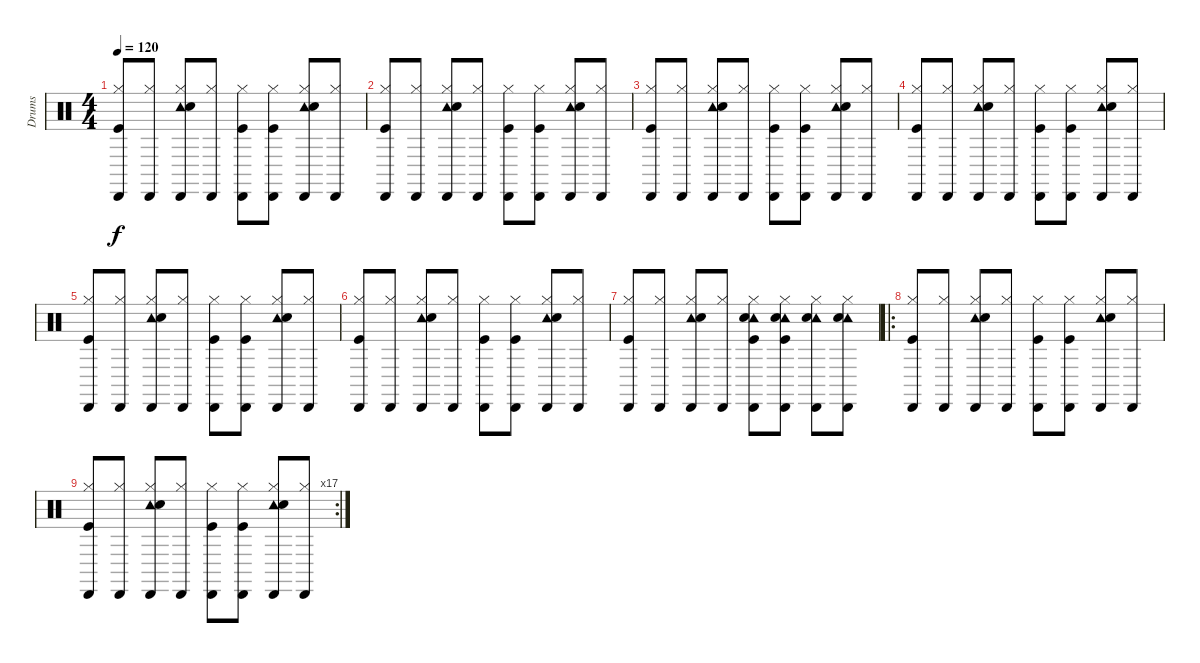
\track ("Drums" "Drums") {instrument percussion}
\staff {score}
\articulation defaults
\ts (4 4)
\tempo 120
\clef neutral
\ks c
("Hi-Hat (closed)" "Cabasa (hit)" "Kick (hit)").8{dy f} ("Hi-Hat (closed)" "Cabasa (hit)").8 ("Hi-Hat (closed)" "Tambourine (hit)" "Cabasa (hit)" "Snare (hit) 2").8 ("Hi-Hat (closed)" "Cabasa (hit)").8 ("Hi-Hat (closed)" "Cabasa (hit)" "Kick (hit)").8 ("Hi-Hat (closed)" "Cabasa (hit)" "Kick (hit)").8 ("Hi-Hat (closed)" "Tambourine (hit)" "Cabasa (hit)" "Snare (hit) 2").8 ("Hi-Hat (closed)" "Cabasa (hit)").8 |
("Hi-Hat (closed)" "Cabasa (hit)" "Kick (hit)").8 ("Hi-Hat (closed)" "Cabasa (hit)").8 ("Hi-Hat (closed)" "Tambourine (hit)" "Cabasa (hit)" "Snare (hit) 2").8 ("Hi-Hat (closed)" "Cabasa (hit)").8 ("Hi-Hat (closed)" "Cabasa (hit)" "Kick (hit)").8 ("Hi-Hat (closed)" "Cabasa (hit)" "Kick (hit)").8 ("Hi-Hat (closed)" "Tambourine (hit)" "Cabasa (hit)" "Snare (hit) 2").8 ("Hi-Hat (closed)" "Cabasa (hit)").8 |
("Hi-Hat (closed)" "Cabasa (hit)" "Kick (hit)").8 ("Hi-Hat (closed)" "Cabasa (hit)").8 ("Hi-Hat (closed)" "Tambourine (hit)" "Cabasa (hit)" "Snare (hit) 2").8 ("Hi-Hat (closed)" "Cabasa (hit)").8 ("Hi-Hat (closed)" "Cabasa (hit)" "Kick (hit)").8 ("Hi-Hat (closed)" "Cabasa (hit)" "Kick (hit)").8 ("Hi-Hat (closed)" "Tambourine (hit)" "Cabasa (hit)" "Snare (hit) 2").8 ("Hi-Hat (closed)" "Cabasa (hit)").8 |
("Hi-Hat (closed)" "Cabasa (hit)" "Kick (hit)").8 ("Hi-Hat (closed)" "Cabasa (hit)").8 ("Hi-Hat (closed)" "Tambourine (hit)" "Cabasa (hit)" "Snare (hit) 2").8 ("Hi-Hat (closed)" "Cabasa (hit)").8 ("Hi-Hat (closed)" "Cabasa (hit)" "Kick (hit)").8 ("Hi-Hat (closed)" "Cabasa (hit)" "Kick (hit)").8 ("Hi-Hat (closed)" "Tambourine (hit)" "Cabasa (hit)" "Snare (hit) 2").8 ("Hi-Hat (closed)" "Cabasa (hit)").8 |
("Hi-Hat (closed)" "Cabasa (hit)" "Kick (hit)").8 ("Hi-Hat (closed)" "Cabasa (hit)").8 ("Hi-Hat (closed)" "Tambourine (hit)" "Cabasa (hit)" "Snare (hit) 2").8 ("Hi-Hat (closed)" "Cabasa (hit)").8 ("Hi-Hat (closed)" "Cabasa (hit)" "Kick (hit)").8 ("Hi-Hat (closed)" "Cabasa (hit)" "Kick (hit)").8 ("Hi-Hat (closed)" "Tambourine (hit)" "Cabasa (hit)" "Snare (hit) 2").8 ("Hi-Hat (closed)" "Cabasa (hit)").8 |
("Hi-Hat (closed)" "Cabasa (hit)" "Kick (hit)").8 ("Hi-Hat (closed)" "Cabasa (hit)").8 ("Hi-Hat (closed)" "Tambourine (hit)" "Cabasa (hit)" "Snare (hit) 2").8 ("Hi-Hat (closed)" "Cabasa (hit)").8 ("Hi-Hat (closed)" "Cabasa (hit)" "Kick (hit)").8 ("Hi-Hat (closed)" "Cabasa (hit)" "Kick (hit)").8 ("Hi-Hat (closed)" "Tambourine (hit)" "Cabasa (hit)" "Snare (hit) 2").8 ("Hi-Hat (closed)" "Cabasa (hit)").8 |
("Hi-Hat (closed)" "Cabasa (hit)" "Kick (hit)").8 ("Hi-Hat (closed)" "Cabasa (hit)").8 ("Hi-Hat (closed)" "Tambourine (hit)" "Cabasa (hit)" "Snare (hit) 2").8 ("Hi-Hat (closed)" "Cabasa (hit)").8 ("Hi-Hat (closed)" "Tambourine (hit)" "Cabasa (hit)" "Snare (hit) 2" "Kick (hit)").8 ("Hi-Hat (closed)" "Tambourine (hit)" "Cabasa (hit)" "Snare (hit) 2" "Kick (hit)").8 ("Hi-Hat (closed)" "Tambourine (hit)" "Cabasa (hit)" "Snare (hit) 2").8 ("Hi-Hat (closed)" "Tambourine (hit)" "Cabasa (hit)" "Snare (hit) 2").8 |
\ro
("Hi-Hat (closed)" "Cabasa (hit)" "Kick (hit)").8 ("Hi-Hat (closed)" "Cabasa (hit)").8 ("Hi-Hat (closed)" "Tambourine (hit)" "Cabasa (hit)" "Snare (hit) 2").8 ("Hi-Hat (closed)" "Cabasa (hit)").8 ("Hi-Hat (closed)" "Cabasa (hit)" "Kick (hit)").8 ("Hi-Hat (closed)" "Cabasa (hit)" "Kick (hit)").8 ("Hi-Hat (closed)" "Tambourine (hit)" "Cabasa (hit)" "Snare (hit) 2").8 ("Hi-Hat (closed)" "Cabasa (hit)").8 |
\rc 17
("Hi-Hat (closed)" "Cabasa (hit)" "Kick (hit)").8 ("Hi-Hat (closed)" "Cabasa (hit)").8 ("Hi-Hat (closed)" "Tambourine (hit)" "Cabasa (hit)" "Snare (hit) 2").8 ("Hi-Hat (closed)" "Cabasa (hit)").8 ("Hi-Hat (closed)" "Cabasa (hit)" "Kick (hit)").8 ("Hi-Hat (closed)" "Cabasa (hit)" "Kick (hit)").8 ("Hi-Hat (closed)" "Tambourine (hit)" "Cabasa (hit)" "Snare (hit) 2").8 ("Hi-Hat (closed)" "Cabasa (hit)").8
